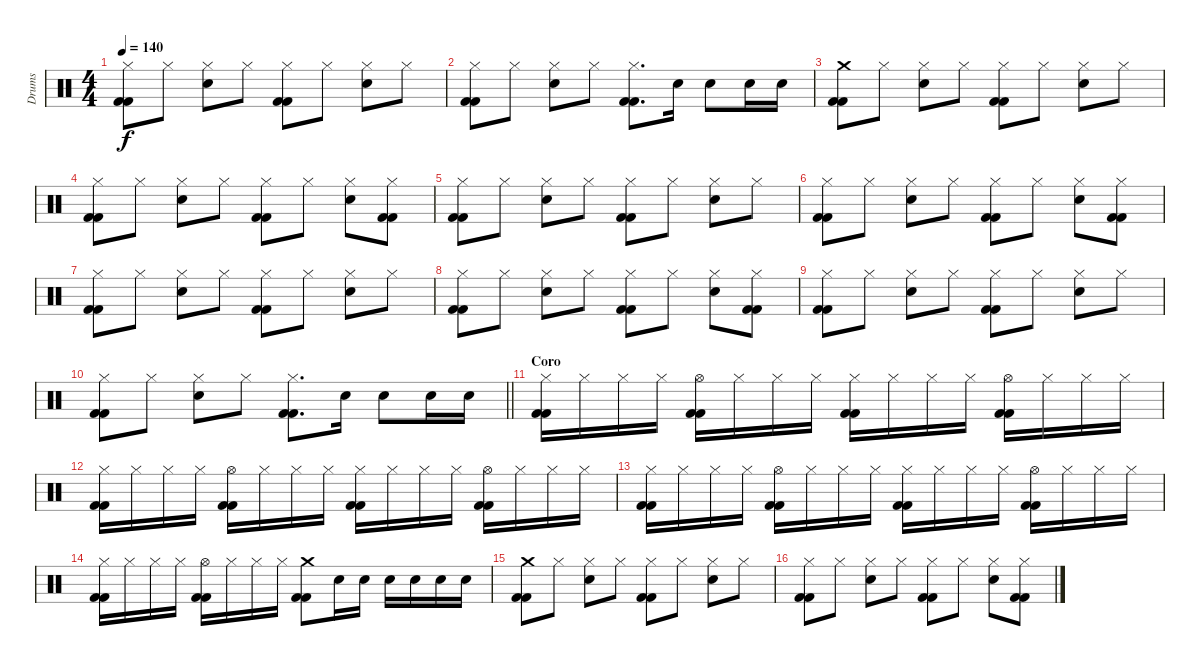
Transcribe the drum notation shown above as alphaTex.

\track ("Drums" "Drums") {instrument percussion}
\staff {score}
\articulation defaults
\ts (4 4)
\tempo 140
\clef neutral
\ks c
("Hi-Hat (closed)" "Kick (hit) 2" "Kick (hit) 2").8{dy f} "Hi-Hat (closed)".8 ("Hi-Hat (closed)" "Electric Snare (hit)").8 "Hi-Hat (closed)".8 ("Hi-Hat (closed)" "Kick (hit) 2" "Kick (hit) 2").8 "Hi-Hat (closed)".8 ("Hi-Hat (closed)" "Electric Snare (hit)").8 "Hi-Hat (closed)".8 |
("Hi-Hat (closed)" "Kick (hit) 2" "Kick (hit) 2").8 "Hi-Hat (closed)".8 ("Hi-Hat (closed)" "Electric Snare (hit)").8 "Hi-Hat (closed)".8 ("Hi-Hat (closed)" "Kick (hit) 2" "Kick (hit) 2").8{d} "Electric Snare (hit)".16 "Electric Snare (hit)".8 "Electric Snare (hit)".16 "Electric Snare (hit)".16 |
("Crash medium (hit)" "Kick (hit) 2" "Kick (hit) 2").8 "Hi-Hat (closed)".8 ("Hi-Hat (closed)" "Electric Snare (hit)").8 "Hi-Hat (closed)".8 ("Hi-Hat (closed)" "Kick (hit) 2" "Kick (hit) 2").8 "Hi-Hat (closed)".8 ("Hi-Hat (closed)" "Electric Snare (hit)").8 "Hi-Hat (closed)".8 |
("Hi-Hat (closed)" "Kick (hit) 2" "Kick (hit) 2").8 "Hi-Hat (closed)".8 ("Hi-Hat (closed)" "Electric Snare (hit)").8 "Hi-Hat (closed)".8 ("Hi-Hat (closed)" "Kick (hit) 2" "Kick (hit) 2").8 "Hi-Hat (closed)".8 ("Hi-Hat (closed)" "Electric Snare (hit)").8 ("Hi-Hat (closed)" "Kick (hit) 2" "Kick (hit) 2").8 |
("Hi-Hat (closed)" "Kick (hit) 2" "Kick (hit) 2").8 "Hi-Hat (closed)".8 ("Hi-Hat (closed)" "Electric Snare (hit)").8 "Hi-Hat (closed)".8 ("Hi-Hat (closed)" "Kick (hit) 2" "Kick (hit) 2").8 "Hi-Hat (closed)".8 ("Hi-Hat (closed)" "Electric Snare (hit)").8 "Hi-Hat (closed)".8 |
("Hi-Hat (closed)" "Kick (hit) 2" "Kick (hit) 2").8 "Hi-Hat (closed)".8 ("Hi-Hat (closed)" "Electric Snare (hit)").8 "Hi-Hat (closed)".8 ("Hi-Hat (closed)" "Kick (hit) 2" "Kick (hit) 2").8 "Hi-Hat (closed)".8 ("Hi-Hat (closed)" "Electric Snare (hit)").8 ("Hi-Hat (closed)" "Kick (hit) 2" "Kick (hit) 2").8 |
("Hi-Hat (closed)" "Kick (hit) 2" "Kick (hit) 2").8 "Hi-Hat (closed)".8 ("Hi-Hat (closed)" "Electric Snare (hit)").8 "Hi-Hat (closed)".8 ("Hi-Hat (closed)" "Kick (hit) 2" "Kick (hit) 2").8 "Hi-Hat (closed)".8 ("Hi-Hat (closed)" "Electric Snare (hit)").8 "Hi-Hat (closed)".8 |
("Hi-Hat (closed)" "Kick (hit) 2" "Kick (hit) 2").8 "Hi-Hat (closed)".8 ("Hi-Hat (closed)" "Electric Snare (hit)").8 "Hi-Hat (closed)".8 ("Hi-Hat (closed)" "Kick (hit) 2" "Kick (hit) 2").8 "Hi-Hat (closed)".8 ("Hi-Hat (closed)" "Electric Snare (hit)").8 ("Hi-Hat (closed)" "Kick (hit) 2" "Kick (hit) 2").8 |
("Hi-Hat (closed)" "Kick (hit) 2" "Kick (hit) 2").8 "Hi-Hat (closed)".8 ("Hi-Hat (closed)" "Electric Snare (hit)").8 "Hi-Hat (closed)".8 ("Hi-Hat (closed)" "Kick (hit) 2" "Kick (hit) 2").8 "Hi-Hat (closed)".8 ("Hi-Hat (closed)" "Electric Snare (hit)").8 "Hi-Hat (closed)".8 |
\barLineRight lightlight
("Hi-Hat (closed)" "Kick (hit) 2" "Kick (hit) 2").8 "Hi-Hat (closed)".8 ("Hi-Hat (closed)" "Electric Snare (hit)").8 "Hi-Hat (closed)".8 ("Hi-Hat (closed)" "Kick (hit) 2" "Kick (hit) 2").8{d} "Electric Snare (hit)".16 "Electric Snare (hit)".8 "Electric Snare (hit)".16 "Electric Snare (hit)".16 |
\section ("" "Coro")
("Hi-Hat (closed)" "Kick (hit) 2" "Kick (hit) 2").16 "Hi-Hat (closed)".16 "Hi-Hat (closed)".16 "Hi-Hat (closed)".16 ("Hi-Hat (open)" "Kick (hit) 2" "Kick (hit) 2").16 "Hi-Hat (closed)".16 "Hi-Hat (closed)".16 "Hi-Hat (closed)".16 ("Hi-Hat (closed)" "Kick (hit) 2" "Kick (hit) 2").16 "Hi-Hat (closed)".16 "Hi-Hat (closed)".16 "Hi-Hat (closed)".16 ("Hi-Hat (open)" "Kick (hit) 2" "Kick (hit) 2").16 "Hi-Hat (closed)".16 "Hi-Hat (closed)".16 "Hi-Hat (closed)".16 |
("Hi-Hat (closed)" "Kick (hit) 2" "Kick (hit) 2").16 "Hi-Hat (closed)".16 "Hi-Hat (closed)".16 "Hi-Hat (closed)".16 ("Hi-Hat (open)" "Kick (hit) 2" "Kick (hit) 2").16 "Hi-Hat (closed)".16 "Hi-Hat (closed)".16 "Hi-Hat (closed)".16 ("Hi-Hat (closed)" "Kick (hit) 2" "Kick (hit) 2").16 "Hi-Hat (closed)".16 "Hi-Hat (closed)".16 "Hi-Hat (closed)".16 ("Hi-Hat (open)" "Kick (hit) 2" "Kick (hit) 2").16 "Hi-Hat (closed)".16 "Hi-Hat (closed)".16 "Hi-Hat (closed)".16 |
("Hi-Hat (closed)" "Kick (hit) 2" "Kick (hit) 2").16 "Hi-Hat (closed)".16 "Hi-Hat (closed)".16 "Hi-Hat (closed)".16 ("Hi-Hat (open)" "Kick (hit) 2" "Kick (hit) 2").16 "Hi-Hat (closed)".16 "Hi-Hat (closed)".16 "Hi-Hat (closed)".16 ("Hi-Hat (closed)" "Kick (hit) 2" "Kick (hit) 2").16 "Hi-Hat (closed)".16 "Hi-Hat (closed)".16 "Hi-Hat (closed)".16 ("Hi-Hat (open)" "Kick (hit) 2" "Kick (hit) 2").16 "Hi-Hat (closed)".16 "Hi-Hat (closed)".16 "Hi-Hat (closed)".16 |
("Hi-Hat (closed)" "Kick (hit) 2" "Kick (hit) 2").16 "Hi-Hat (closed)".16 "Hi-Hat (closed)".16 "Hi-Hat (closed)".16 ("Hi-Hat (open)" "Kick (hit) 2" "Kick (hit) 2").16 "Hi-Hat (closed)".16 "Hi-Hat (closed)".16 "Hi-Hat (closed)".16 ("Crash medium (hit)" "Kick (hit) 2" "Kick (hit) 2").8 "Electric Snare (hit)".16 "Electric Snare (hit)".16 "Electric Snare (hit)".16 "Electric Snare (hit)".16 "Electric Snare (hit)".16 "Electric Snare (hit)".16 |
("Crash medium (hit)" "Kick (hit) 2" "Kick (hit) 2").8 "Hi-Hat (closed)".8 ("Hi-Hat (closed)" "Electric Snare (hit)").8 "Hi-Hat (closed)".8 ("Hi-Hat (closed)" "Kick (hit) 2" "Kick (hit) 2").8 "Hi-Hat (closed)".8 ("Hi-Hat (closed)" "Electric Snare (hit)").8 "Hi-Hat (closed)".8 |
("Hi-Hat (closed)" "Kick (hit) 2" "Kick (hit) 2").8 "Hi-Hat (closed)".8 ("Hi-Hat (closed)" "Electric Snare (hit)").8 "Hi-Hat (closed)".8 ("Hi-Hat (closed)" "Kick (hit) 2" "Kick (hit) 2").8 "Hi-Hat (closed)".8 ("Hi-Hat (closed)" "Electric Snare (hit)").8 ("Hi-Hat (closed)" "Kick (hit) 2" "Kick (hit) 2").8
